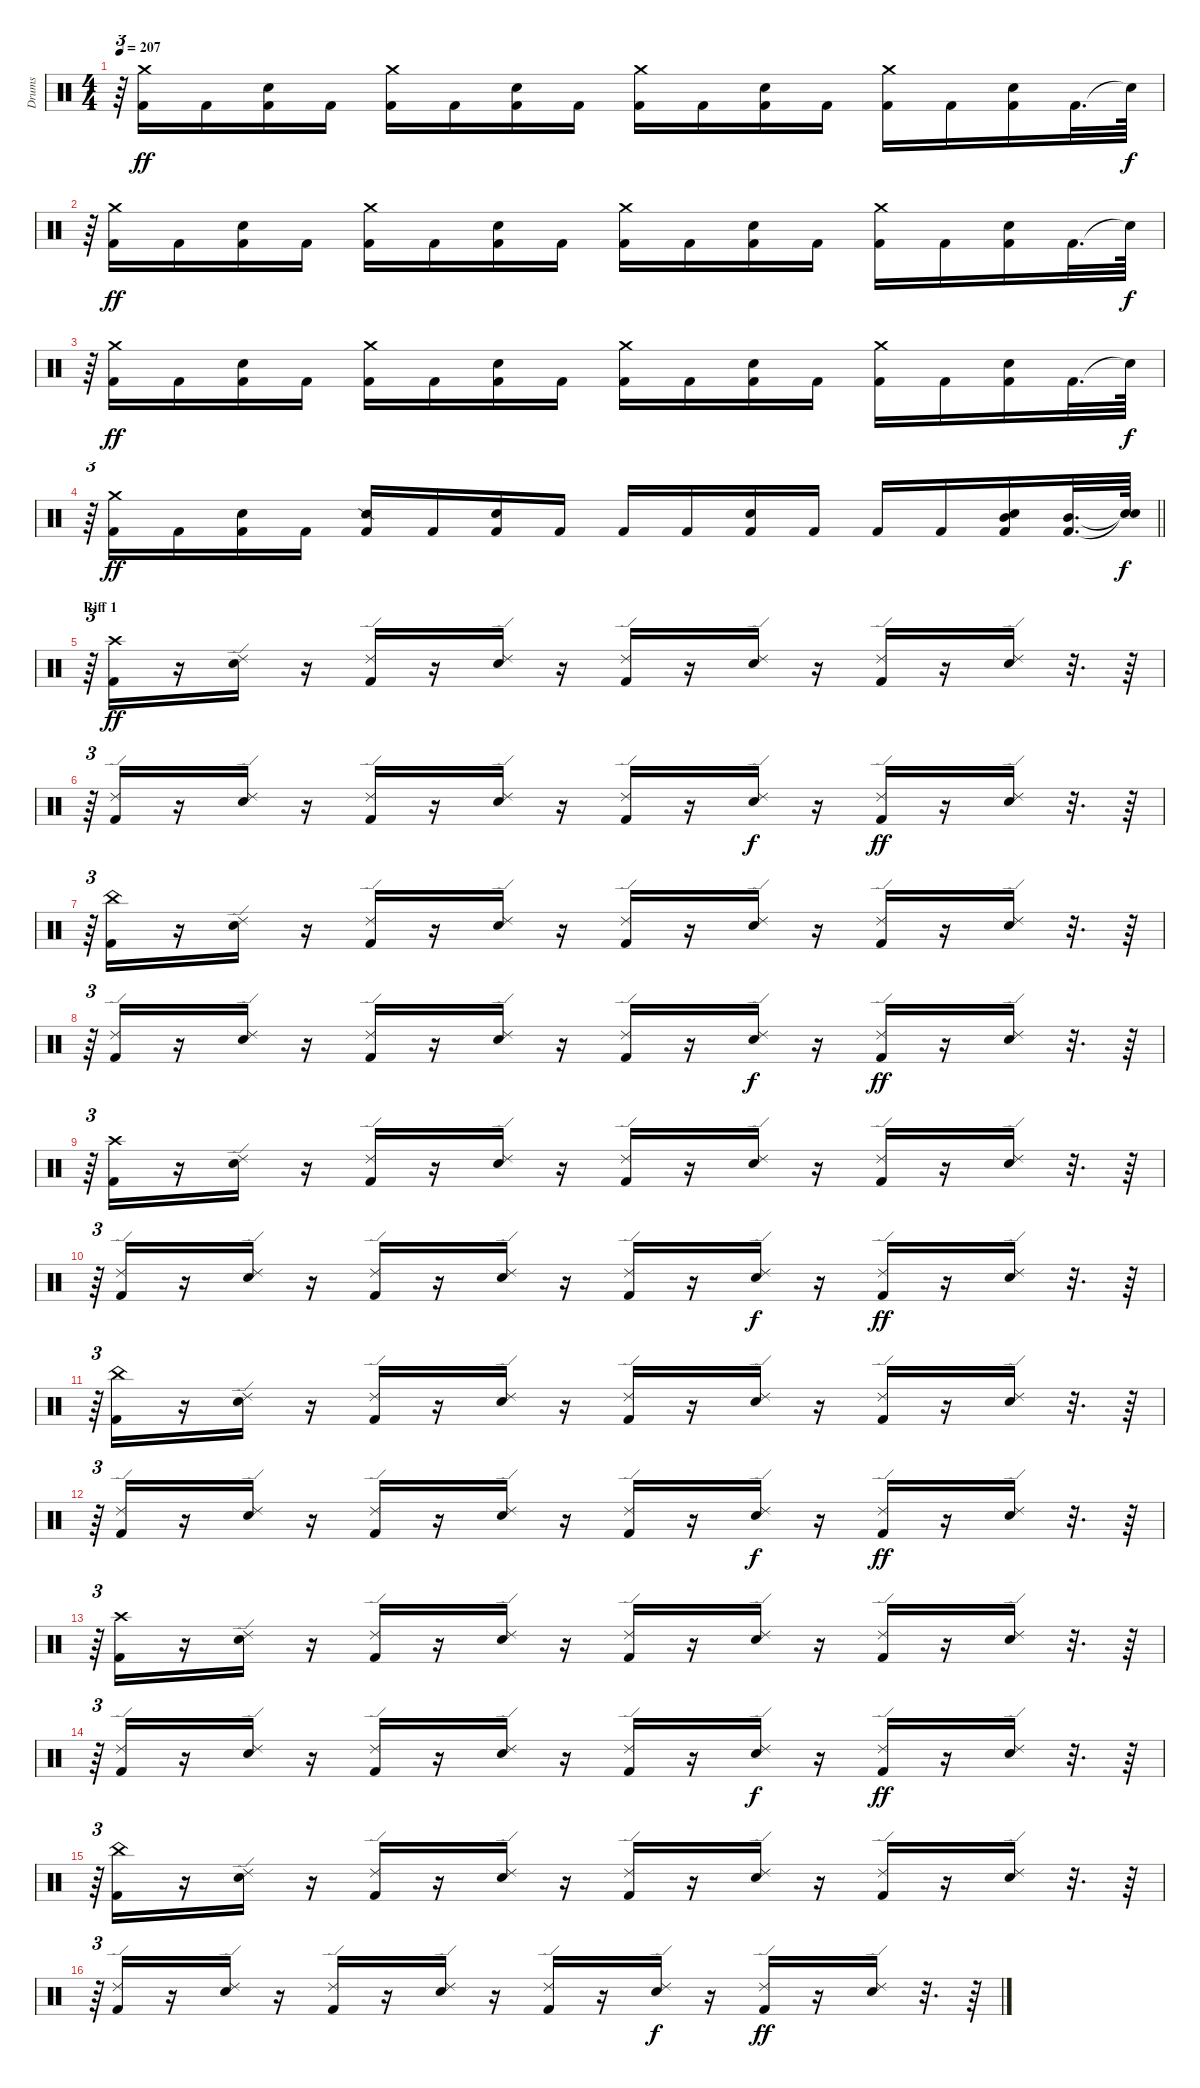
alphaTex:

\track ("Drums" "Drums") {instrument percussion}
\staff {score}
\articulation defaults
\ts (4 4)
\tempo 207
\clef neutral
\ks c
r.64{tu (3 2) dy f} ("Kick (hit) 2" "Crash medium (hit)").16{dy ff} "Kick (hit) 2".16 ("Kick (hit) 2" "Snare (hit) 2").16 "Kick (hit) 2".16 ("Kick (hit) 2" "Crash medium (hit)").16 "Kick (hit) 2".16 ("Kick (hit) 2" "Snare (hit) 2").16 "Kick (hit) 2".16 ("Kick (hit) 2" "Crash medium (hit)").16 "Kick (hit) 2".16 ("Kick (hit) 2" "Snare (hit) 2").16 "Kick (hit) 2".16 ("Kick (hit) 2" "Crash medium (hit)").16 "Kick (hit) 2".16 ("Kick (hit) 2" "Snare (hit) 2").16 "Kick (hit) 2".32{d} "Snare (hit)"{t}.64{dy f} |
r.64{tu (3 2)} ("Kick (hit) 2" "Crash medium (hit)").16{dy ff} "Kick (hit) 2".16 ("Kick (hit) 2" "Snare (hit) 2").16 "Kick (hit) 2".16 ("Kick (hit) 2" "Crash medium (hit)").16 "Kick (hit) 2".16 ("Kick (hit) 2" "Snare (hit) 2").16 "Kick (hit) 2".16 ("Kick (hit) 2" "Crash medium (hit)").16 "Kick (hit) 2".16 ("Kick (hit) 2" "Snare (hit) 2").16 "Kick (hit) 2".16 ("Kick (hit) 2" "Crash medium (hit)").16 "Kick (hit) 2".16 ("Kick (hit) 2" "Snare (hit) 2").16 "Kick (hit) 2".32{d} "Snare (hit)"{t}.64{dy f} |
r.64{tu (3 2)} ("Kick (hit) 2" "Crash medium (hit)").16{dy ff} "Kick (hit) 2".16 ("Kick (hit) 2" "Snare (hit) 2").16 "Kick (hit) 2".16 ("Kick (hit) 2" "Crash medium (hit)").16 "Kick (hit) 2".16 ("Kick (hit) 2" "Snare (hit) 2").16 "Kick (hit) 2".16 ("Kick (hit) 2" "Crash medium (hit)").16 "Kick (hit) 2".16 ("Kick (hit) 2" "Snare (hit) 2").16 "Kick (hit) 2".16 ("Kick (hit) 2" "Crash medium (hit)").16 "Kick (hit) 2".16 ("Kick (hit) 2" "Snare (hit) 2").16 "Kick (hit) 2".32{d} "Snare (hit)"{t}.64{dy f} |
\barLineRight lightlight
r.64{tu (3 2)} ("Kick (hit) 2" "Crash medium (hit)").16{dy ff} "Kick (hit) 2".16 ("Kick (hit) 2" "Snare (hit) 2").16 "Kick (hit) 2".16 ("Kick (hit) 2" "Snare (side stick) 2").16 "Kick (hit) 2".16 ("Kick (hit) 2" "Snare (hit) 2").16 "Kick (hit) 2".16 "Kick (hit) 2".16 "Kick (hit) 2".16 ("Kick (hit) 2" "Snare (hit) 2").16 "Kick (hit) 2".16 "Kick (hit) 2".16 "Kick (hit) 2".16 ("Kick (hit) 2" "Snare (hit) 2" "Mid Tom (hit)").16 ("Kick (hit) 2" "Mid Tom (hit)").32{d} ("Snare (hit)"{t} "Snare (hit)"{t}).64{dy f} |
\section ("" "Riff 1")
r.64{tu (3 2)} ("Kick (hit) 2" "Crash high (hit)").16{dy ff} r.16 ("Snare (hit) 2" "Ride (edge) 2").16 r.16 ("Kick (hit) 2" "Ride (edge) 2").16 r.16 ("Snare (hit) 2" "Ride (edge) 2").16 r.16 ("Kick (hit) 2" "Ride (edge) 2").16 r.16 ("Snare (hit) 2" "Ride (edge) 2").16 r.16 ("Kick (hit) 2" "Ride (edge) 2").16 r.16 ("Snare (hit) 2" "Ride (edge) 2").16 r.32{d} r.64 |
r.64{tu (3 2)} ("Kick (hit) 2" "Ride (edge) 2").16 r.16 ("Snare (hit) 2" "Ride (edge) 2").16 r.16 ("Kick (hit) 2" "Ride (edge) 2").16 r.16 ("Snare (hit) 2" "Ride (edge) 2").16 r.16 ("Kick (hit) 2" "Ride (edge) 2").16 r.16 ("Snare (hit) 2" "Ride (edge) 2").16{dy f} r.16 ("Kick (hit) 2" "Ride (edge) 2").16{dy ff} r.16 ("Snare (hit) 2" "Ride (edge) 2").16 r.32{d} r.64 |
r.64{tu (3 2)} ("Kick (hit) 2" "China (hit)").16 r.16 ("Snare (hit) 2" "Ride (edge) 2").16 r.16 ("Kick (hit) 2" "Ride (edge) 2").16 r.16 ("Snare (hit) 2" "Ride (edge) 2").16 r.16 ("Kick (hit) 2" "Ride (edge) 2").16 r.16 ("Snare (hit) 2" "Ride (edge) 2").16 r.16 ("Kick (hit) 2" "Ride (edge) 2").16 r.16 ("Snare (hit) 2" "Ride (edge) 2").16 r.32{d} r.64 |
r.64{tu (3 2)} ("Kick (hit) 2" "Ride (edge) 2").16 r.16 ("Snare (hit) 2" "Ride (edge) 2").16 r.16 ("Kick (hit) 2" "Ride (edge) 2").16 r.16 ("Snare (hit) 2" "Ride (edge) 2").16 r.16 ("Kick (hit) 2" "Ride (edge) 2").16 r.16 ("Snare (hit) 2" "Ride (edge) 2").16{dy f} r.16 ("Kick (hit) 2" "Ride (edge) 2").16{dy ff} r.16 ("Snare (hit) 2" "Ride (edge) 2").16 r.32{d} r.64 |
r.64{tu (3 2)} ("Kick (hit) 2" "Crash high (hit)").16 r.16 ("Snare (hit) 2" "Ride (edge) 2").16 r.16 ("Kick (hit) 2" "Ride (edge) 2").16 r.16 ("Snare (hit) 2" "Ride (edge) 2").16 r.16 ("Kick (hit) 2" "Ride (edge) 2").16 r.16 ("Snare (hit) 2" "Ride (edge) 2").16 r.16 ("Kick (hit) 2" "Ride (edge) 2").16 r.16 ("Snare (hit) 2" "Ride (edge) 2").16 r.32{d} r.64 |
r.64{tu (3 2)} ("Kick (hit) 2" "Ride (edge) 2").16 r.16 ("Snare (hit) 2" "Ride (edge) 2").16 r.16 ("Kick (hit) 2" "Ride (edge) 2").16 r.16 ("Snare (hit) 2" "Ride (edge) 2").16 r.16 ("Kick (hit) 2" "Ride (edge) 2").16 r.16 ("Snare (hit) 2" "Ride (edge) 2").16{dy f} r.16 ("Kick (hit) 2" "Ride (edge) 2").16{dy ff} r.16 ("Snare (hit) 2" "Ride (edge) 2").16 r.32{d} r.64 |
r.64{tu (3 2)} ("Kick (hit) 2" "China (hit)").16 r.16 ("Snare (hit) 2" "Ride (edge) 2").16 r.16 ("Kick (hit) 2" "Ride (edge) 2").16 r.16 ("Snare (hit) 2" "Ride (edge) 2").16 r.16 ("Kick (hit) 2" "Ride (edge) 2").16 r.16 ("Snare (hit) 2" "Ride (edge) 2").16 r.16 ("Kick (hit) 2" "Ride (edge) 2").16 r.16 ("Snare (hit) 2" "Ride (edge) 2").16 r.32{d} r.64 |
r.64{tu (3 2)} ("Kick (hit) 2" "Ride (edge) 2").16 r.16 ("Snare (hit) 2" "Ride (edge) 2").16 r.16 ("Kick (hit) 2" "Ride (edge) 2").16 r.16 ("Snare (hit) 2" "Ride (edge) 2").16 r.16 ("Kick (hit) 2" "Ride (edge) 2").16 r.16 ("Snare (hit) 2" "Ride (edge) 2").16{dy f} r.16 ("Kick (hit) 2" "Ride (edge) 2").16{dy ff} r.16 ("Snare (hit) 2" "Ride (edge) 2").16 r.32{d} r.64 |
r.64{tu (3 2)} ("Kick (hit) 2" "Crash high (hit)").16 r.16 ("Snare (hit) 2" "Ride (edge) 2").16 r.16 ("Kick (hit) 2" "Ride (edge) 2").16 r.16 ("Snare (hit) 2" "Ride (edge) 2").16 r.16 ("Kick (hit) 2" "Ride (edge) 2").16 r.16 ("Snare (hit) 2" "Ride (edge) 2").16 r.16 ("Kick (hit) 2" "Ride (edge) 2").16 r.16 ("Snare (hit) 2" "Ride (edge) 2").16 r.32{d} r.64 |
r.64{tu (3 2)} ("Kick (hit) 2" "Ride (edge) 2").16 r.16 ("Snare (hit) 2" "Ride (edge) 2").16 r.16 ("Kick (hit) 2" "Ride (edge) 2").16 r.16 ("Snare (hit) 2" "Ride (edge) 2").16 r.16 ("Kick (hit) 2" "Ride (edge) 2").16 r.16 ("Snare (hit) 2" "Ride (edge) 2").16{dy f} r.16 ("Kick (hit) 2" "Ride (edge) 2").16{dy ff} r.16 ("Snare (hit) 2" "Ride (edge) 2").16 r.32{d} r.64 |
r.64{tu (3 2)} ("Kick (hit) 2" "China (hit)").16 r.16 ("Snare (hit) 2" "Ride (edge) 2").16 r.16 ("Kick (hit) 2" "Ride (edge) 2").16 r.16 ("Snare (hit) 2" "Ride (edge) 2").16 r.16 ("Kick (hit) 2" "Ride (edge) 2").16 r.16 ("Snare (hit) 2" "Ride (edge) 2").16 r.16 ("Kick (hit) 2" "Ride (edge) 2").16 r.16 ("Snare (hit) 2" "Ride (edge) 2").16 r.32{d} r.64 |
r.64{tu (3 2)} ("Kick (hit) 2" "Ride (edge) 2").16 r.16 ("Snare (hit) 2" "Ride (edge) 2").16 r.16 ("Kick (hit) 2" "Ride (edge) 2").16 r.16 ("Snare (hit) 2" "Ride (edge) 2").16 r.16 ("Kick (hit) 2" "Ride (edge) 2").16 r.16 ("Snare (hit) 2" "Ride (edge) 2").16{dy f} r.16 ("Kick (hit) 2" "Ride (edge) 2").16{dy ff} r.16 ("Snare (hit) 2" "Ride (edge) 2").16 r.32{d} r.64
